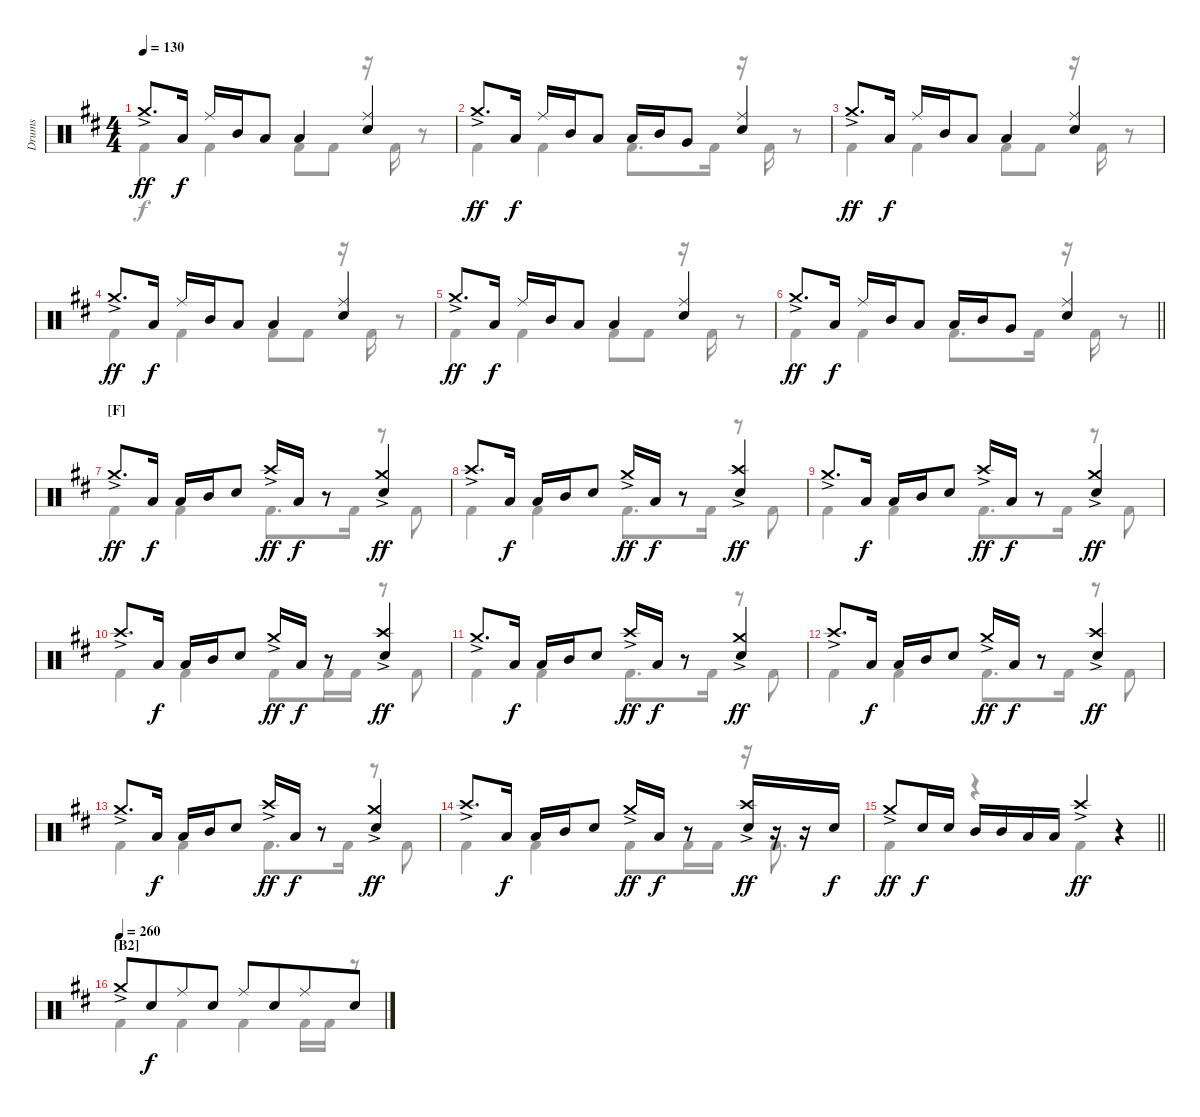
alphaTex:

\track ("Drums" "Drums") {instrument percussion}
\staff {score}
\articulation defaults
\voice
\ts (4 4)
\tempo 130
\clef neutral
\ks bminor "Crash medium (hit)"{ac}.8{d dy ff} "Low Tom (hit)".16{dy f} "Ride (middle)".16 "Mid Tom (hit)".16 "Low Tom (hit)".8 "Low Tom (hit)".4
("Ride (middle)" "Snare (hit) 2").4 |
"Crash medium (hit)"{ac}.8{d dy ff} "Low Tom (hit)".16{dy f} "Ride (middle)".16 "Mid Tom (hit)".16 "Low Tom (hit)".8 "Low Tom (hit)".16 "Mid Tom (hit)".16 "Very Low Tom (hit)".8 ("Ride (middle)" "Snare (hit) 2").4 |
"Crash medium (hit)"{ac}.8{d dy ff} "Low Tom (hit)".16{dy f} "Ride (middle)".16 "Mid Tom (hit)".16 "Low Tom (hit)".8 "Low Tom (hit)".4 ("Ride (middle)" "Snare (hit) 2").4 |
"Crash medium (hit)"{ac}.8{d dy ff} "Low Tom (hit)".16{dy f} "Ride (middle)".16 "Mid Tom (hit)".16 "Low Tom (hit)".8 "Low Tom (hit)".4 ("Ride (middle)" "Snare (hit) 2").4 |
"Crash medium (hit)"{ac}.8{d dy ff} "Low Tom (hit)".16{dy f} "Ride (middle)".16 "Mid Tom (hit)".16 "Low Tom (hit)".8 "Low Tom (hit)".4 ("Ride (middle)" "Snare (hit) 2").4 |
\barLineRight lightlight "Crash medium (hit)"{ac}.8{d dy ff} "Low Tom (hit)".16{dy f} "Ride (middle)".16 "Mid Tom (hit)".16 "Low Tom (hit)".8 "Low Tom (hit)".16 "Mid Tom (hit)".16 "Very Low Tom (hit)".8
("Ride (middle)" "Snare (hit) 2").4 |
\section ("" "[F]")
"Crash medium (hit)"{ac}.8{d dy ff} "Low Tom (hit)".16{dy f} "Low Tom (hit)".16 "Mid Tom (hit)".16 "Snare (hit) 2".8 "Crash high (hit)"{ac}.16{dy ff} "Low Tom (hit)".16{dy f} r.8 ("Crash medium (hit)"{ac} "Snare (hit) 2").4{dy ff} |
"Crash high (hit)"{ac}.8{d} "Low Tom (hit)".16{dy f} "Low Tom (hit)".16 "Mid Tom (hit)".16 "Snare (hit) 2".8 "Crash medium (hit)"{ac}.16{dy ff} "Low Tom (hit)".16{dy f} r.8 ("Crash high (hit)"{ac} "Snare (hit) 2").4{dy ff} |
"Crash medium (hit)"{ac}.8{d} "Low Tom (hit)".16{dy f} "Low Tom (hit)".16 "Mid Tom (hit)".16 "Snare (hit) 2".8 "Crash high (hit)"{ac}.16{dy ff} "Low Tom (hit)".16{dy f} r.8 ("Crash medium (hit)"{ac} "Snare (hit) 2").4{dy ff} |
"Crash high (hit)"{ac}.8{d} "Low Tom (hit)".16{dy f} "Low Tom (hit)".16 "Mid Tom (hit)".16 "Snare (hit) 2".8 "Crash medium (hit)"{ac}.16{dy ff} "Low Tom (hit)".16{dy f} r.8 ("Crash high (hit)"{ac} "Snare (hit) 2").4{dy ff} |
"Crash medium (hit)"{ac}.8{d} "Low Tom (hit)".16{dy f} "Low Tom (hit)".16 "Mid Tom (hit)".16 "Snare (hit) 2".8 "Crash high (hit)"{ac}.16{dy ff} "Low Tom (hit)".16{dy f} r.8 ("Crash medium (hit)"{ac} "Snare (hit) 2").4{dy ff} |
"Crash high (hit)"{ac}.8{d} "Low Tom (hit)".16{dy f} "Low Tom (hit)".16 "Mid Tom (hit)".16 "Snare (hit) 2".8 "Crash medium (hit)"{ac}.16{dy ff} "Low Tom (hit)".16{dy f} r.8 ("Crash high (hit)"{ac} "Snare (hit) 2").4{dy ff} |
"Crash medium (hit)"{ac}.8{d} "Low Tom (hit)".16{dy f} "Low Tom (hit)".16 "Mid Tom (hit)".16 "Snare (hit) 2".8 "Crash high (hit)"{ac}.16{dy ff} "Low Tom (hit)".16{dy f} r.8 ("Crash medium (hit)"{ac} "Snare (hit) 2").4{dy ff} |
"Crash high (hit)"{ac}.8{d} "Low Tom (hit)".16{dy f} "Low Tom (hit)".16 "Mid Tom (hit)".16 "Snare (hit) 2".8 "Crash medium (hit)"{ac}.16{dy ff} "Low Tom (hit)".16{dy f} r.8 ("Crash high (hit)"{ac} "Snare (hit) 2").16{dy ff} r.16 r.16 "Snare (hit) 2".16{dy f} |
\barLineRight lightlight "Crash medium (hit)"{ac}.8{dy ff} "Snare (hit) 2".16{dy f} "Snare (hit) 2".16 "Mid Tom (hit)".16 "Mid Tom (hit)".16 "Low Tom (hit)".16 "Low Tom (hit)".16 "Crash high (hit)"{ac}.4{dy ff}
r.4 |
\section ("" "[B2]")
\tempo (260)
"Crash medium (hit)"{ac}.8 "Snare (hit) 2".8{dy f beam merge} "Ride (middle)".8 "Snare (hit) 2".8 "Ride (middle)".8 "Snare (hit) 2".8{beam merge} "Ride (middle)".8 "Snare (hit) 2".8
\voice
\clef neutral
\ottava regular
\simile none
\ks bminor "Kick (hit) 2".4{dy f} "Kick (hit) 2".4 "Kick (hit) 2".8 "Kick (hit) 2".8
r.16 "Kick (hit) 2".16 r.8 |
"Kick (hit) 2".4 "Kick (hit) 2".4 "Kick (hit) 2".8{d} "Kick (hit) 2".16 r.16 "Kick (hit) 2".16 r.8 |
"Kick (hit) 2".4 "Kick (hit) 2".4 "Kick (hit) 2".8 "Kick (hit) 2".8 r.16 "Kick (hit) 2".16 r.8 |
"Kick (hit) 2".4 "Kick (hit) 2".4 "Kick (hit) 2".8 "Kick (hit) 2".8 r.16 "Kick (hit) 2".16 r.8 |
"Kick (hit) 2".4 "Kick (hit) 2".4 "Kick (hit) 2".8 "Kick (hit) 2".8 r.16 "Kick (hit) 2".16 r.8 |
\barLineRight lightlight "Kick (hit) 2".4 "Kick (hit) 2".4 "Kick (hit) 2".8{d} "Kick (hit) 2".16
r.16 "Kick (hit) 2".16 r.8 |
"Kick (hit) 2".4 "Kick (hit) 2".4 "Kick (hit) 2".8{d} "Kick (hit) 2".16 r.8 "Kick (hit) 2".8 |
"Kick (hit) 2".4 "Kick (hit) 2".4 "Kick (hit) 2".8{d} "Kick (hit) 2".16 r.8 "Kick (hit) 2".8 |
"Kick (hit) 2".4 "Kick (hit) 2".4 "Kick (hit) 2".8{d} "Kick (hit) 2".16 r.8 "Kick (hit) 2".8 |
"Kick (hit) 2".4 "Kick (hit) 2".4 "Kick (hit) 2".8 "Kick (hit) 2".16 "Kick (hit) 2".16 r.8 "Kick (hit) 2".8 |
"Kick (hit) 2".4 "Kick (hit) 2".4 "Kick (hit) 2".8{d} "Kick (hit) 2".16 r.8 "Kick (hit) 2".8 |
"Kick (hit) 2".4 "Kick (hit) 2".4 "Kick (hit) 2".8{d} "Kick (hit) 2".16 r.8 "Kick (hit) 2".8 |
"Kick (hit) 2".4 "Kick (hit) 2".4 "Kick (hit) 2".8{d} "Kick (hit) 2".16 r.8 "Kick (hit) 2".8 |
"Kick (hit) 2".4 "Kick (hit) 2".4 "Kick (hit) 2".8 "Kick (hit) 2".16 "Kick (hit) 2".16 r.16 "Kick (hit) 2".8{d} |
\barLineRight lightlight "Kick (hit) 2".4
r.4 "Kick (hit) 2".4 r.4 |
"Kick (hit) 2".4 "Kick (hit) 2".4 "Kick (hit) 2".4 "Kick (hit) 2".16 "Kick (hit) 2".16 r.8
